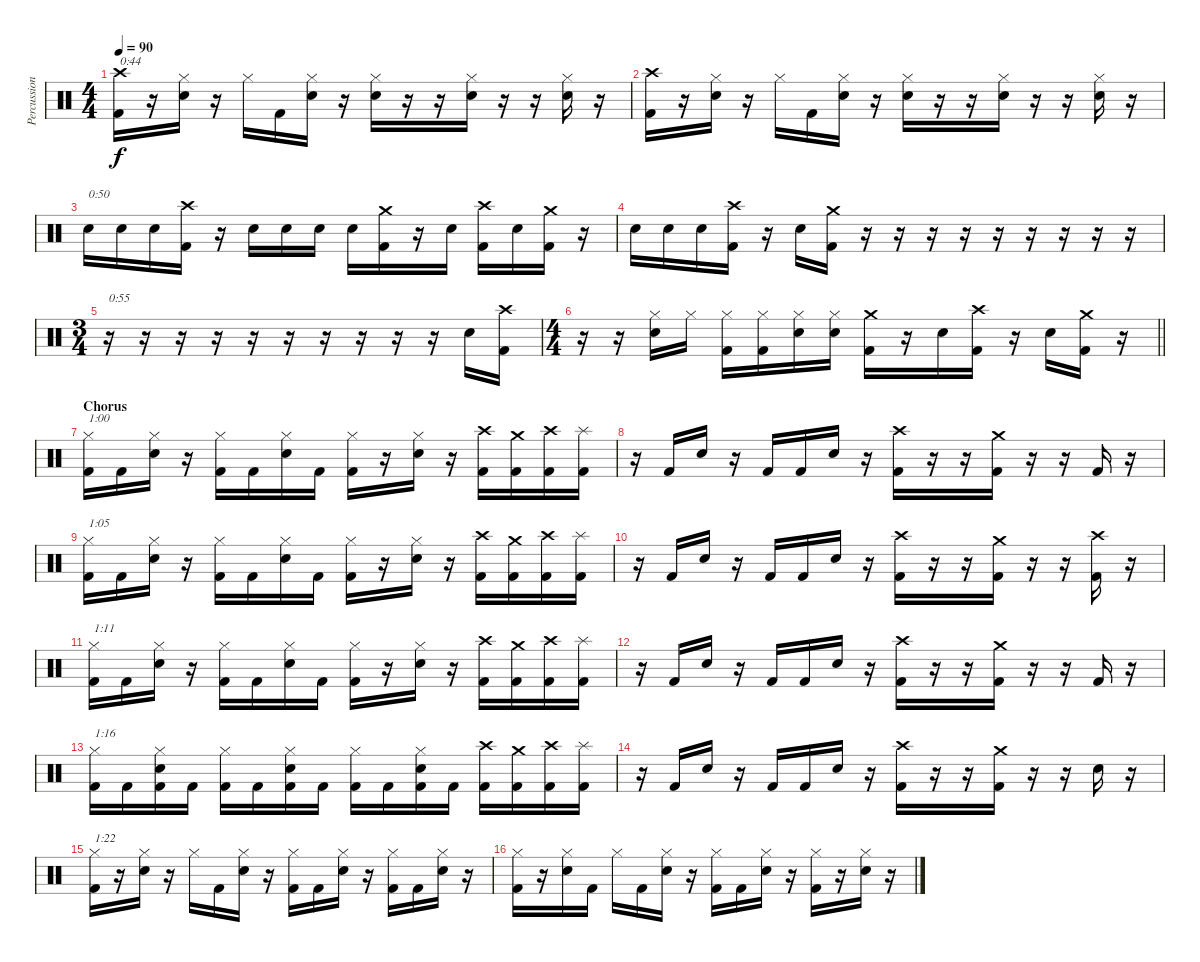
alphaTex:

\track ("Percussion" "Percussion") {instrument percussion}
\staff {score}
\articulation defaults
\ts (4 4)
\tempo 90
\clef neutral
\ks c
("Crash high (hit)" "Kick (hit) 2").16{txt "0:44" dy f} r.16 ("Hi-Hat (closed)" "Snare (hit) 2").16 r.16 "Hi-Hat (closed)".16 "Kick (hit) 2".16 ("Hi-Hat (closed)" "Snare (hit) 2").16 r.16 ("Hi-Hat (closed)" "Snare (hit) 2").16 r.16 r.16 ("Hi-Hat (closed)" "Snare (hit) 2").16 r.16 r.16 ("Hi-Hat (closed)" "Snare (hit) 2").16 r.16 |
("Crash high (hit)" "Kick (hit) 2").16 r.16 ("Hi-Hat (closed)" "Snare (hit) 2").16 r.16 "Hi-Hat (closed)".16 "Kick (hit) 2".16 ("Hi-Hat (closed)" "Snare (hit) 2").16 r.16 ("Hi-Hat (closed)" "Snare (hit) 2").16 r.16 r.16 ("Hi-Hat (closed)" "Snare (hit) 2").16 r.16 r.16 ("Hi-Hat (closed)" "Snare (hit) 2").16 r.16 |
"Snare (hit) 2".16{txt "0:50"} "Snare (hit) 2".16 "Snare (hit) 2".16 ("Crash high (hit)" "Kick (hit) 2").16 r.16 "Snare (hit) 2".16 "Snare (hit) 2".16 "Snare (hit) 2".16 "Snare (hit) 2".16 ("Crash medium (hit)" "Kick (hit) 2").16 r.16 "Snare (hit) 2".16 ("Crash high (hit)" "Kick (hit) 2").16 "Snare (hit) 2".16 ("Crash medium (hit)" "Kick (hit) 2").16 r.16 |
"Snare (hit) 2".16 "Snare (hit) 2".16 "Snare (hit) 2".16 ("Crash high (hit)" "Kick (hit) 2").16 r.16 "Snare (hit) 2".16 ("Crash medium (hit)" "Kick (hit) 2").16 r.16 r.16 r.16 r.16 r.16 r.16 r.16 r.16 r.16 |
\ts (3 4)
r.16{txt "0:55"} r.16 r.16 r.16 r.16 r.16 r.16 r.16 r.16 r.16 "Snare (hit) 2".16 ("Crash high (hit)" "Kick (hit) 2").16 |
\ts (4 4)
\barLineRight lightlight
r.16 r.16 ("Hi-Hat (closed)" "Snare (hit) 2").16 "Hi-Hat (closed)".16 ("Hi-Hat (closed)" "Kick (hit) 2").16 ("Hi-Hat (closed)" "Kick (hit) 2").16 ("Hi-Hat (closed)" "Snare (hit) 2").16 ("Hi-Hat (closed)" "Snare (hit) 2").16 ("Crash medium (hit)" "Kick (hit) 2").16 r.16 "Snare (hit) 2".16 ("Crash high (hit)" "Kick (hit) 2").16 r.16 "Snare (hit) 2".16 ("Crash medium (hit)" "Kick (hit) 2").16 r.16 |
\section ("" "Chorus")
("Hi-Hat (closed)" "Kick (hit) 2").16{txt "1:00"} "Kick (hit) 2".16 ("Hi-Hat (closed)" "Snare (hit) 2").16 r.16 ("Hi-Hat (closed)" "Kick (hit) 2").16 "Kick (hit) 2".16 ("Hi-Hat (closed)" "Snare (hit) 2").16 "Kick (hit) 2".16 ("Hi-Hat (closed)" "Kick (hit) 2").16 r.16 ("Hi-Hat (closed)" "Snare (hit) 2").16 r.16 ("Crash high (hit)" "Kick (hit) 2").16 ("Crash medium (hit)" "Kick (hit) 2").16 ("Crash high (hit)" "Kick (hit) 2").16 ("Splash (hit)" "Kick (hit) 2").16 |
r.16 "Kick (hit) 2".16 "Snare (hit) 2".16 r.16 "Kick (hit) 2".16 "Kick (hit) 2".16 "Snare (hit) 2".16 r.16 ("Crash high (hit)" "Kick (hit) 2").16 r.16 r.16 ("Crash medium (hit)" "Kick (hit) 2").16 r.16 r.16 "Kick (hit) 2".16 r.16 |
("Hi-Hat (closed)" "Kick (hit) 2").16{txt "1:05"} "Kick (hit) 2".16 ("Hi-Hat (closed)" "Snare (hit) 2").16 r.16 ("Hi-Hat (closed)" "Kick (hit) 2").16 "Kick (hit) 2".16 ("Hi-Hat (closed)" "Snare (hit) 2").16 "Kick (hit) 2".16 ("Hi-Hat (closed)" "Kick (hit) 2").16 r.16 ("Hi-Hat (closed)" "Snare (hit) 2").16 r.16 ("Crash high (hit)" "Kick (hit) 2").16 ("Crash medium (hit)" "Kick (hit) 2").16 ("Crash high (hit)" "Kick (hit) 2").16 ("Splash (hit)" "Kick (hit) 2").16 |
r.16 "Kick (hit) 2".16 "Snare (hit) 2".16 r.16 "Kick (hit) 2".16 "Kick (hit) 2".16 "Snare (hit) 2".16 r.16 ("Crash high (hit)" "Kick (hit) 2").16 r.16 r.16 ("Crash medium (hit)" "Kick (hit) 2").16 r.16 r.16 ("Crash high (hit)" "Kick (hit) 2").16 r.16 |
("Hi-Hat (closed)" "Kick (hit) 2").16{txt "1:11"} "Kick (hit) 2".16 ("Hi-Hat (closed)" "Snare (hit) 2").16 r.16 ("Hi-Hat (closed)" "Kick (hit) 2").16 "Kick (hit) 2".16 ("Hi-Hat (closed)" "Snare (hit) 2").16 "Kick (hit) 2".16 ("Hi-Hat (closed)" "Kick (hit) 2").16 r.16 ("Hi-Hat (closed)" "Snare (hit) 2").16 r.16 ("Crash high (hit)" "Kick (hit) 2").16 ("Crash medium (hit)" "Kick (hit) 2").16 ("Crash high (hit)" "Kick (hit) 2").16 ("Splash (hit)" "Kick (hit) 2").16 |
r.16 "Kick (hit) 2".16 "Snare (hit) 2".16 r.16 "Kick (hit) 2".16 "Kick (hit) 2".16 "Snare (hit) 2".16 r.16 ("Crash high (hit)" "Kick (hit) 2").16 r.16 r.16 ("Crash medium (hit)" "Kick (hit) 2").16 r.16 r.16 "Kick (hit) 2".16 r.16 |
("Hi-Hat (closed)" "Kick (hit) 2").16{txt "1:16"} "Kick (hit) 2".16 ("Hi-Hat (closed)" "Snare (hit) 2" "Kick (hit) 2").16 "Kick (hit) 2".16 ("Hi-Hat (closed)" "Kick (hit) 2").16 "Kick (hit) 2".16 ("Hi-Hat (closed)" "Snare (hit) 2" "Kick (hit) 2").16 "Kick (hit) 2".16 ("Hi-Hat (closed)" "Kick (hit) 2").16 "Kick (hit) 2".16 ("Hi-Hat (closed)" "Snare (hit) 2" "Kick (hit) 2").16 "Kick (hit) 2".16 ("Crash high (hit)" "Kick (hit) 2").16 ("Crash medium (hit)" "Kick (hit) 2").16 ("Crash high (hit)" "Kick (hit) 2").16 ("Splash (hit)" "Kick (hit) 2").16 |
r.16 "Kick (hit) 2".16 "Snare (hit) 2".16 r.16 "Kick (hit) 2".16 "Kick (hit) 2".16 "Snare (hit) 2".16 r.16 ("Crash high (hit)" "Kick (hit) 2").16 r.16 r.16 ("Crash medium (hit)" "Kick (hit) 2").16 r.16 r.16 "Snare (hit) 2".16 r.16 |
("Hi-Hat (closed)" "Kick (hit) 2").16{txt "1:22"} r.16 ("Hi-Hat (closed)" "Snare (hit) 2").16 r.16 "Hi-Hat (closed)".16 "Kick (hit) 2".16 ("Hi-Hat (closed)" "Snare (hit) 2").16 r.16 ("Hi-Hat (closed)" "Kick (hit) 2").16 "Kick (hit) 2".16 ("Hi-Hat (closed)" "Snare (hit) 2").16 r.16 ("Hi-Hat (closed)" "Kick (hit) 2").16 "Kick (hit) 2".16 ("Hi-Hat (closed)" "Snare (hit) 2").16 r.16 |
("Hi-Hat (closed)" "Kick (hit) 2").16 r.16 ("Hi-Hat (closed)" "Snare (hit) 2").16 "Kick (hit) 2".16 "Hi-Hat (closed)".16 "Kick (hit) 2".16 ("Hi-Hat (closed)" "Snare (hit) 2").16 r.16 ("Hi-Hat (closed)" "Kick (hit) 2").16 "Kick (hit) 2".16 ("Hi-Hat (closed)" "Snare (hit) 2").16 r.16 ("Hi-Hat (closed)" "Kick (hit) 2").16 r.16 ("Hi-Hat (closed)" "Snare (hit) 2").16 r.16
